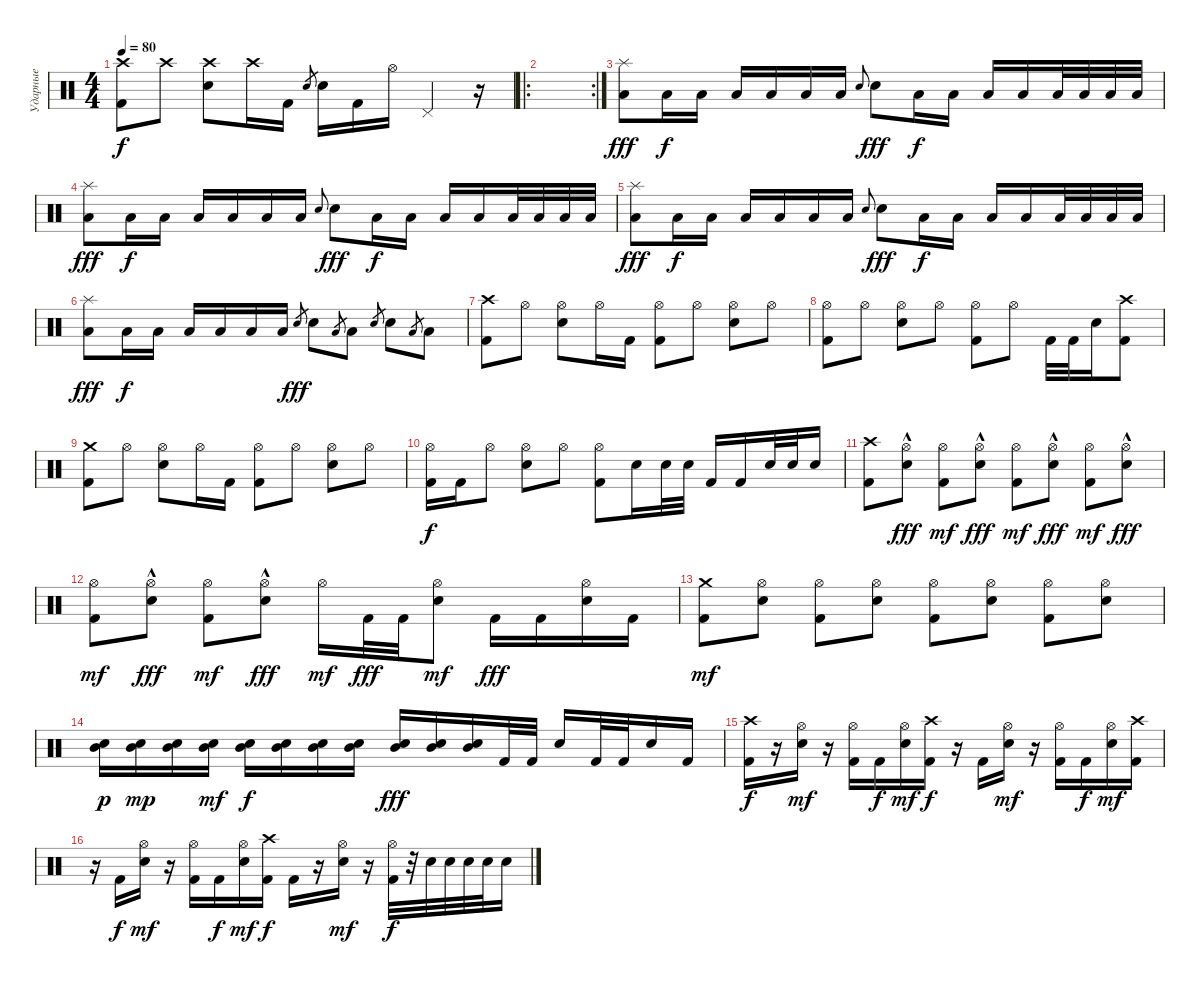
\track ("Ударные" "Ударные") {instrument percussion}
\staff {score}
\articulation defaults
\ts (4 4)
\tempo 80
\clef neutral
\ks c
("Crash high (hit)" "Kick (hit) 2").8{dy f} "Crash high (hit)".8 ("Crash high (hit)" "Electric Snare (hit)").8 "Crash high (hit)".16 "Kick (hit) 2".16 "Electric Snare (hit)".8{gr} "Electric Snare (hit)".16 "Kick (hit) 2".16 "Hi-Hat (open)".16 "Pedal Hi-Hat (hit)".4 r.16 |
\ro
\rc 2
|
("Low Tom (hit)" "Splash (hit)").8{dy fff} "Low Tom (hit)".16{dy f} "Low Tom (hit)".16 "Low Tom (hit)".16 "Low Tom (hit)".16 "Low Tom (hit)".16 "Low Tom (hit)".16 "Electric Snare (hit)".8{gr onbeat} "Electric Snare (hit)".8{dy fff} "Low Tom (hit)".16{dy f} "Low Tom (hit)".16 "Low Tom (hit)".16 "Low Tom (hit)".16 "Low Tom (hit)".32 "Low Tom (hit)".32 "Low Tom (hit)".32 "Low Tom (hit)".32 |
("Low Tom (hit)" "Splash (hit)").8{dy fff} "Low Tom (hit)".16{dy f} "Low Tom (hit)".16 "Low Tom (hit)".16 "Low Tom (hit)".16 "Low Tom (hit)".16 "Low Tom (hit)".16 "Electric Snare (hit)".8{gr onbeat} "Electric Snare (hit)".8{dy fff} "Low Tom (hit)".16{dy f} "Low Tom (hit)".16 "Low Tom (hit)".16 "Low Tom (hit)".16 "Low Tom (hit)".32 "Low Tom (hit)".32 "Low Tom (hit)".32 "Low Tom (hit)".32 |
("Low Tom (hit)" "Splash (hit)").8{dy fff} "Low Tom (hit)".16{dy f} "Low Tom (hit)".16 "Low Tom (hit)".16 "Low Tom (hit)".16 "Low Tom (hit)".16 "Low Tom (hit)".16 "Electric Snare (hit)".8{gr onbeat} "Electric Snare (hit)".8{dy fff} "Low Tom (hit)".16{dy f} "Low Tom (hit)".16 "Low Tom (hit)".16 "Low Tom (hit)".16 "Low Tom (hit)".32 "Low Tom (hit)".32 "Low Tom (hit)".32 "Low Tom (hit)".32 |
("Low Tom (hit)" "Splash (hit)").8{dy fff} "Low Tom (hit)".16{dy f} "Low Tom (hit)".16 "Low Tom (hit)".16 "Low Tom (hit)".16 "Low Tom (hit)".16 "Low Tom (hit)".16 "Electric Snare (hit)".8{gr dy fff} "Electric Snare (hit)".8 "Low Tom (hit)".8{gr} "Low Tom (hit)".8 "Electric Snare (hit)".8{gr} "Electric Snare (hit)".8 "Low Tom (hit)".8{gr} "Low Tom (hit)".8 |
("Crash high (hit)" "Kick (hit) 2").8 "Hi-Hat (open)".8 ("Hi-Hat (open)" "Electric Snare (hit)").8 "Hi-Hat (open)".16 "Kick (hit) 2".16 ("Kick (hit) 2" "Hi-Hat (open)").8 "Hi-Hat (open)".8 ("Hi-Hat (open)" "Electric Snare (hit)").8 "Hi-Hat (open)".8 |
("Hi-Hat (open)" "Kick (hit) 2").8 "Hi-Hat (open)".8 ("Hi-Hat (open)" "Electric Snare (hit)").8 "Hi-Hat (open)".8 ("Hi-Hat (open)" "Kick (hit) 2").8 "Hi-Hat (open)".8 "Kick (hit) 2".32 "Kick (hit) 2".32 "Electric Snare (hit)".16 ("Kick (hit) 2" "Crash high (hit)").8 |
("Crash medium (hit)" "Kick (hit) 2").8 "Hi-Hat (open)".8 ("Hi-Hat (open)" "Electric Snare (hit)").8 "Hi-Hat (open)".16 "Kick (hit) 2".16 ("Kick (hit) 2" "Hi-Hat (open)").8 "Hi-Hat (open)".8 ("Hi-Hat (open)" "Electric Snare (hit)").8 "Hi-Hat (open)".8 |
("Kick (hit) 2" "Hi-Hat (open)").16{dy f} "Kick (hit) 2".16 "Hi-Hat (open)".8 ("Hi-Hat (open)" "Electric Snare (hit)").8 "Hi-Hat (open)".8 ("Hi-Hat (open)" "Kick (hit) 2").8 "Electric Snare (hit)".16 "Electric Snare (hit)".32 "Electric Snare (hit)".32 "Kick (hit) 2".16 "Kick (hit) 2".16 "Electric Snare (hit)".32 "Electric Snare (hit)".32 "Electric Snare (hit)".16 |
("Crash high (hit)" "Kick (hit) 2").8 ("Hi-Hat (open)" "Electric Snare (hit)"{hac}).8{dy fff} ("Hi-Hat (open)" "Kick (hit) 2").8{dy mf} ("Hi-Hat (open)" "Electric Snare (hit)"{hac}).8{dy fff} ("Hi-Hat (open)" "Kick (hit) 2").8{dy mf} ("Hi-Hat (open)" "Electric Snare (hit)"{hac}).8{dy fff} ("Hi-Hat (open)" "Kick (hit) 2").8{dy mf} ("Hi-Hat (open)" "Electric Snare (hit)"{hac}).8{dy fff} |
("Hi-Hat (open)" "Kick (hit) 2").8{dy mf} ("Hi-Hat (open)" "Electric Snare (hit)"{hac}).8{dy fff} ("Hi-Hat (open)" "Kick (hit) 2").8{dy mf} ("Hi-Hat (open)" "Electric Snare (hit)"{hac}).8{dy fff} "Hi-Hat (open)".16{dy mf} "Kick (hit) 2".32{dy fff} "Kick (hit) 2".32 ("Hi-Hat (open)" "Electric Snare (hit)").8{dy mf} "Kick (hit) 2".16{dy fff} "Kick (hit) 2".16 ("Hi-Hat (open)" "Electric Snare (hit)").16 "Kick (hit) 2".16 |
("Crash medium (hit)" "Kick (hit) 2").8{dy mf} ("Hi-Hat (open)" "Electric Snare (hit)").8 ("Hi-Hat (open)" "Kick (hit) 2").8 ("Hi-Hat (open)" "Electric Snare (hit)").8 ("Hi-Hat (open)" "Kick (hit) 2").8 ("Hi-Hat (open)" "Electric Snare (hit)").8 ("Hi-Hat (open)" "Kick (hit) 2").8 ("Hi-Hat (open)" "Electric Snare (hit)").8 |
("Electric Snare (hit)" "Mid Tom (hit)").16{dy p} ("Electric Snare (hit)" "Mid Tom (hit)").16{dy mp} ("Electric Snare (hit)" "Mid Tom (hit)").16 ("Electric Snare (hit)" "Mid Tom (hit)").16{dy mf} ("Electric Snare (hit)" "Mid Tom (hit)").16{dy f} ("Electric Snare (hit)" "Mid Tom (hit)").16 ("Electric Snare (hit)" "Mid Tom (hit)").16 ("Electric Snare (hit)" "Mid Tom (hit)").16 ("Electric Snare (hit)" "Mid Tom (hit)").16{dy fff} ("Electric Snare (hit)" "Mid Tom (hit)").16 ("Electric Snare (hit)" "Mid Tom (hit)").16 "Kick (hit) 2".32 "Kick (hit) 2".32 "Electric Snare (hit)".16 "Kick (hit) 2".32 "Kick (hit) 2".32 "Electric Snare (hit)".16 "Kick (hit) 2".16 |
("Kick (hit) 2" "Crash high (hit)").16{dy f} r.16 ("Electric Snare (hit)" "Hi-Hat (open)").16{dy mf} r.16 ("Kick (hit) 2" "Hi-Hat (open)").16 "Kick (hit) 2".16{dy f} ("Electric Snare (hit)" "Hi-Hat (open)").16{dy mf} ("Crash high (hit)" "Kick (hit) 2").16{dy f} r.16 "Kick (hit) 2".16 ("Electric Snare (hit)" "Hi-Hat (open)").16{dy mf} r.16 ("Kick (hit) 2" "Hi-Hat (open)").16 "Kick (hit) 2".16{dy f} ("Electric Snare (hit)" "Hi-Hat (open)").16{dy mf} ("Crash high (hit)" "Kick (hit) 2").16 |
r.16 "Kick (hit) 2".16{dy f} ("Electric Snare (hit)" "Hi-Hat (open)").16{dy mf} r.16 ("Kick (hit) 2" "Hi-Hat (open)").16 "Kick (hit) 2".16{dy f} ("Electric Snare (hit)" "Hi-Hat (open)").16{dy mf} ("Crash high (hit)" "Kick (hit) 2").16{dy f} "Kick (hit) 2".16 r.16 ("Electric Snare (hit)" "Hi-Hat (open)").16{dy mf} r.16 ("Hi-Hat (open)" "Kick (hit) 2").32{dy f} r.32 "Electric Snare (hit)".32 "Electric Snare (hit)".32 "Electric Snare (hit)".32 "Electric Snare (hit)".32 "Electric Snare (hit)".16
